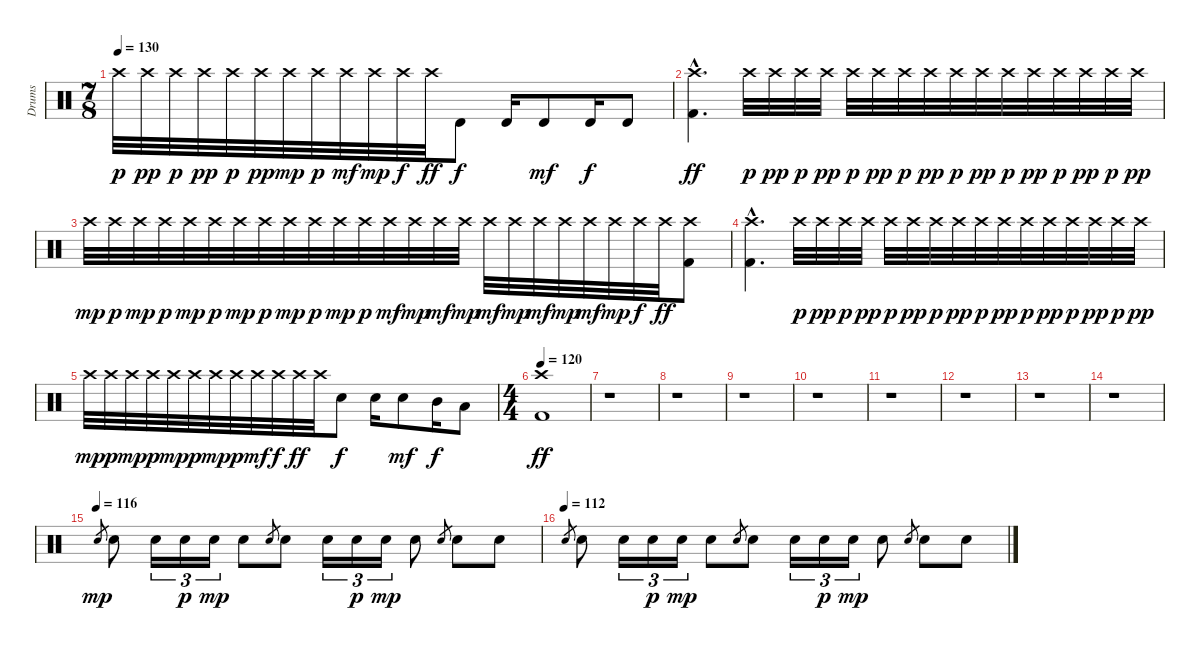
\track ("Drums" "Drums") {instrument percussion}
\staff {score}
\articulation defaults
\ts (7 8)
\tempo 130
\clef neutral
\ks c "Crash high (hit)".32{dy p} "Crash high (hit)".32{dy pp} "Crash high (hit)".32{dy p} "Crash high (hit)".32{dy pp} "Crash high (hit)".32{dy p} "Crash high (hit)".32{dy pp} "Crash high (hit)".32{dy mp} "Crash high (hit)".32{dy p} "Crash high (hit)".32{dy mf} "Crash high (hit)".32{dy mp} "Crash high (hit)".32{dy f} "Crash high (hit)".32{dy ff} "Timbale high (hit)".8{dy f} "Timbale high (hit)".16 "Timbale high (hit)".8{dy mf} "Timbale high (hit)".16{dy f} "Timbale high (hit)".8
|
("Crash high (hit)"{hac} "Kick (hit) 2"{hac}).4{d dy ff} "Crash high (hit)".32{dy p} "Crash high (hit)".32{dy pp} "Crash high (hit)".32{dy p} "Crash high (hit)".32{dy pp} "Crash high (hit)".32{dy p} "Crash high (hit)".32{dy pp} "Crash high (hit)".32{dy p} "Crash high (hit)".32{dy pp} "Crash high (hit)".32{dy p} "Crash high (hit)".32{dy pp} "Crash high (hit)".32{dy p} "Crash high (hit)".32{dy pp} "Crash high (hit)".32{dy p} "Crash high (hit)".32{dy pp} "Crash high (hit)".32{dy p} "Crash high (hit)".32{dy pp} |
"Crash high (hit)".32{dy mp} "Crash high (hit)".32{dy p} "Crash high (hit)".32{dy mp} "Crash high (hit)".32{dy p} "Crash high (hit)".32{dy mp} "Crash high (hit)".32{dy p} "Crash high (hit)".32{dy mp} "Crash high (hit)".32{dy p} "Crash high (hit)".32{dy mp} "Crash high (hit)".32{dy p} "Crash high (hit)".32{dy mp} "Crash high (hit)".32{dy p} "Crash high (hit)".32{dy mf} "Crash high (hit)".32{dy mp} "Crash high (hit)".32{dy mf} "Crash high (hit)".32{dy mp} "Crash high (hit)".32{dy mf} "Crash high (hit)".32{dy mp} "Crash high (hit)".32{dy mf} "Crash high (hit)".32{dy mp} "Crash high (hit)".32{dy mf} "Crash high (hit)".32{dy mp} "Crash high (hit)".32{dy f} "Crash high (hit)".32{dy ff} ("Crash high (hit)" "Kick (hit) 2").8 |
("Crash high (hit)"{hac} "Kick (hit) 2"{hac}).4{d} "Crash high (hit)".32{dy p} "Crash high (hit)".32{dy pp} "Crash high (hit)".32{dy p} "Crash high (hit)".32{dy pp} "Crash high (hit)".32{dy p} "Crash high (hit)".32{dy pp} "Crash high (hit)".32{dy p} "Crash high (hit)".32{dy pp} "Crash high (hit)".32{dy p} "Crash high (hit)".32{dy pp} "Crash high (hit)".32{dy p} "Crash high (hit)".32{dy pp} "Crash high (hit)".32{dy p} "Crash high (hit)".32{dy pp} "Crash high (hit)".32{dy p} "Crash high (hit)".32{dy pp} |
"Crash high (hit)".32{dy mp} "Crash high (hit)".32{dy p} "Crash high (hit)".32{dy mp} "Crash high (hit)".32{dy p} "Crash high (hit)".32{dy mp} "Crash high (hit)".32{dy p} "Crash high (hit)".32{dy mp} "Crash high (hit)".32{dy p} "Crash high (hit)".32{dy mf} "Crash high (hit)".32{dy f} "Crash high (hit)".32{dy ff} "Crash high (hit)".32 "Snare (hit) 2".8{dy f} "Snare (hit) 2".16 "Snare (hit) 2".8{dy mf} "Mid Tom (hit)".16{dy f} "Low Tom (hit)".8 |
\ts (4 4)
\tempo 120
("Crash high (hit)" "Kick (hit) 2").1{dy ff} |
r.1 |
r.1 |
r.1 |
r.1 |
r.1 |
r.1 |
r.1 |
r.1 |
\tempo (116)
"Snare (hit) 2".8{gr dy mp} "Snare (hit) 2".8 "Snare (hit) 2".16{tu (3 2)} "Snare (hit) 2".16{tu (3 2) dy p} "Snare (hit) 2".16{tu (3 2) dy mp} "Snare (hit) 2".8 "Snare (hit) 2".8{gr} "Snare (hit) 2".8 "Snare (hit) 2".16{tu (3 2)} "Snare (hit) 2".16{tu (3 2) dy p} "Snare (hit) 2".16{tu (3 2) dy mp} "Snare (hit) 2".8 "Snare (hit) 2".8{gr} "Snare (hit) 2".8 "Snare (hit) 2".8 |
\tempo (112)
"Snare (hit) 2".8{gr} "Snare (hit) 2".8 "Snare (hit) 2".16{tu (3 2)} "Snare (hit) 2".16{tu (3 2) dy p} "Snare (hit) 2".16{tu (3 2) dy mp} "Snare (hit) 2".8 "Snare (hit) 2".8{gr} "Snare (hit) 2".8 "Snare (hit) 2".16{tu (3 2)} "Snare (hit) 2".16{tu (3 2) dy p} "Snare (hit) 2".16{tu (3 2) dy mp} "Snare (hit) 2".8 "Snare (hit) 2".8{gr} "Snare (hit) 2".8 "Snare (hit) 2".8
